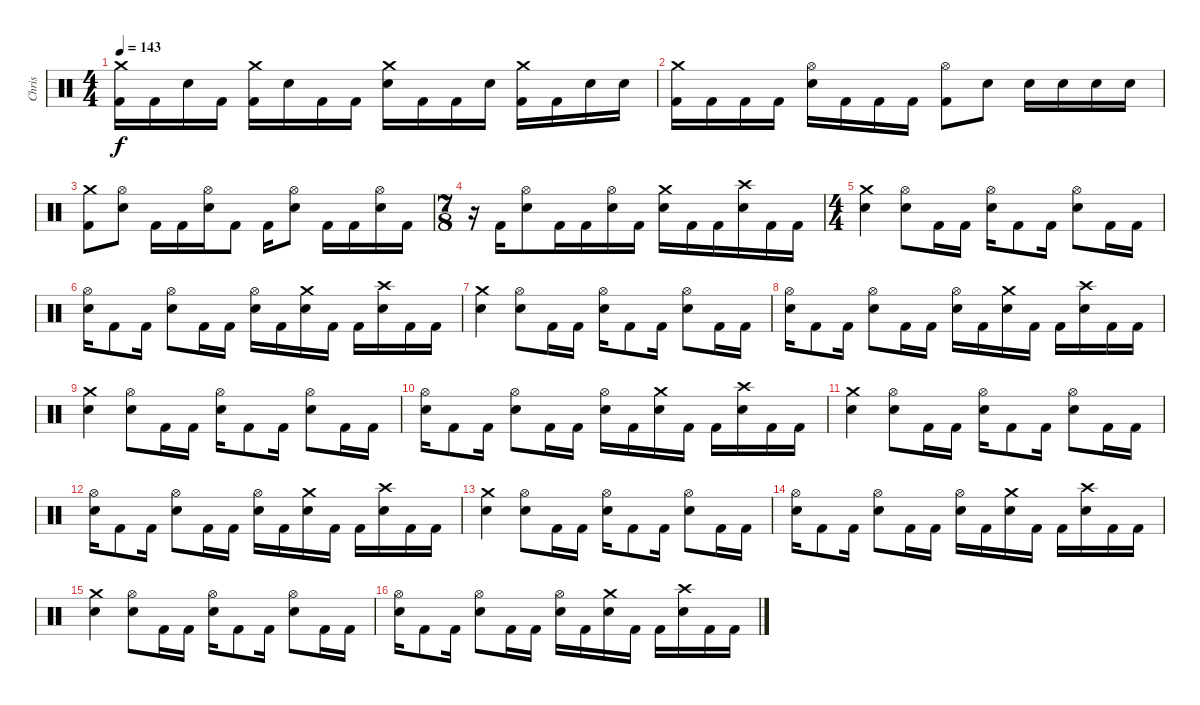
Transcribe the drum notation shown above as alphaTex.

\track ("Chris" "Chris") {instrument percussion}
\staff {score}
\articulation defaults
\ts (4 4)
\tempo 143
\clef neutral
\ks c
("Crash medium (hit)" "Kick (hit) 2").16{dy f} "Kick (hit) 2".16 "Electric Snare (hit)".16 "Kick (hit) 2".16 ("Crash medium (hit)" "Kick (hit) 2").16 "Electric Snare (hit)".16 "Kick (hit) 2".16 "Kick (hit) 2".16 ("Crash medium (hit)" "Electric Snare (hit)").16 "Kick (hit) 2".16 "Kick (hit) 2".16 "Electric Snare (hit)".16 ("Crash medium (hit)" "Kick (hit) 2").16 "Kick (hit) 2".16 "Electric Snare (hit)".16 "Electric Snare (hit)".16 |
("Crash medium (hit)" "Kick (hit) 2").16 "Kick (hit) 2".16 "Kick (hit) 2".16 "Kick (hit) 2".16 ("Hi-Hat (open)" "Electric Snare (hit)").16 "Kick (hit) 2".16 "Kick (hit) 2".16 "Kick (hit) 2".16 ("Hi-Hat (open)" "Kick (hit) 2").8 "Electric Snare (hit)".8 "Electric Snare (hit)".16 "Electric Snare (hit)".16 "Electric Snare (hit)".16 "Electric Snare (hit)".16 |
("Crash medium (hit)" "Kick (hit) 2").8 ("Hi-Hat (open)" "Electric Snare (hit)").8 "Kick (hit) 2".16 "Kick (hit) 2".16 ("Hi-Hat (open)" "Electric Snare (hit)").16 "Kick (hit) 2".8 "Kick (hit) 2".16 ("Hi-Hat (open)" "Electric Snare (hit)").8 "Kick (hit) 2".16 "Kick (hit) 2".16 ("Hi-Hat (open)" "Electric Snare (hit)").16 "Kick (hit) 2".16 |
\ts (7 8)
r.16 "Kick (hit) 2".16 ("Hi-Hat (open)" "Electric Snare (hit)").8 "Kick (hit) 2".16 "Kick (hit) 2".16 ("Hi-Hat (open)" "Electric Snare (hit)").16 "Kick (hit) 2".16 ("Crash medium (hit)" "Electric Snare (hit)").16 "Kick (hit) 2".16 "Kick (hit) 2".16 ("Crash high (hit)" "Electric Snare (hit)").16 "Kick (hit) 2".16 "Kick (hit) 2".16 |
\ts (4 4)
("Crash medium (hit)" "Electric Snare (hit)").4 ("Hi-Hat (open)" "Electric Snare (hit)").8 "Kick (hit) 2".16 "Kick (hit) 2".16 ("Hi-Hat (open)" "Electric Snare (hit)").16 "Kick (hit) 2".8 "Kick (hit) 2".16 ("Hi-Hat (open)" "Electric Snare (hit)").8 "Kick (hit) 2".16 "Kick (hit) 2".16 |
("Hi-Hat (open)" "Electric Snare (hit)").16 "Kick (hit) 2".8 "Kick (hit) 2".16 ("Hi-Hat (open)" "Electric Snare (hit)").8 "Kick (hit) 2".16 "Kick (hit) 2".16 ("Hi-Hat (open)" "Electric Snare (hit)").16 "Kick (hit) 2".16 ("Crash medium (hit)" "Electric Snare (hit)").16 "Kick (hit) 2".16 "Kick (hit) 2".16 ("Crash high (hit)" "Electric Snare (hit)").16 "Kick (hit) 2".16 "Kick (hit) 2".16 |
("Crash medium (hit)" "Electric Snare (hit)").4 ("Hi-Hat (open)" "Electric Snare (hit)").8 "Kick (hit) 2".16 "Kick (hit) 2".16 ("Hi-Hat (open)" "Electric Snare (hit)").16 "Kick (hit) 2".8 "Kick (hit) 2".16 ("Hi-Hat (open)" "Electric Snare (hit)").8 "Kick (hit) 2".16 "Kick (hit) 2".16 |
("Hi-Hat (open)" "Electric Snare (hit)").16 "Kick (hit) 2".8 "Kick (hit) 2".16 ("Hi-Hat (open)" "Electric Snare (hit)").8 "Kick (hit) 2".16 "Kick (hit) 2".16 ("Hi-Hat (open)" "Electric Snare (hit)").16 "Kick (hit) 2".16 ("Crash medium (hit)" "Electric Snare (hit)").16 "Kick (hit) 2".16 "Kick (hit) 2".16 ("Crash high (hit)" "Electric Snare (hit)").16 "Kick (hit) 2".16 "Kick (hit) 2".16 |
("Crash medium (hit)" "Electric Snare (hit)").4 ("Hi-Hat (open)" "Electric Snare (hit)").8 "Kick (hit) 2".16 "Kick (hit) 2".16 ("Hi-Hat (open)" "Electric Snare (hit)").16 "Kick (hit) 2".8 "Kick (hit) 2".16 ("Hi-Hat (open)" "Electric Snare (hit)").8 "Kick (hit) 2".16 "Kick (hit) 2".16 |
("Hi-Hat (open)" "Electric Snare (hit)").16 "Kick (hit) 2".8 "Kick (hit) 2".16 ("Hi-Hat (open)" "Electric Snare (hit)").8 "Kick (hit) 2".16 "Kick (hit) 2".16 ("Hi-Hat (open)" "Electric Snare (hit)").16 "Kick (hit) 2".16 ("Crash medium (hit)" "Electric Snare (hit)").16 "Kick (hit) 2".16 "Kick (hit) 2".16 ("Crash high (hit)" "Electric Snare (hit)").16 "Kick (hit) 2".16 "Kick (hit) 2".16 |
("Crash medium (hit)" "Electric Snare (hit)").4 ("Hi-Hat (open)" "Electric Snare (hit)").8 "Kick (hit) 2".16 "Kick (hit) 2".16 ("Hi-Hat (open)" "Electric Snare (hit)").16 "Kick (hit) 2".8 "Kick (hit) 2".16 ("Hi-Hat (open)" "Electric Snare (hit)").8 "Kick (hit) 2".16 "Kick (hit) 2".16 |
("Hi-Hat (open)" "Electric Snare (hit)").16 "Kick (hit) 2".8 "Kick (hit) 2".16 ("Hi-Hat (open)" "Electric Snare (hit)").8 "Kick (hit) 2".16 "Kick (hit) 2".16 ("Hi-Hat (open)" "Electric Snare (hit)").16 "Kick (hit) 2".16 ("Crash medium (hit)" "Electric Snare (hit)").16 "Kick (hit) 2".16 "Kick (hit) 2".16 ("Crash high (hit)" "Electric Snare (hit)").16 "Kick (hit) 2".16 "Kick (hit) 2".16 |
("Crash medium (hit)" "Electric Snare (hit)").4 ("Hi-Hat (open)" "Electric Snare (hit)").8 "Kick (hit) 2".16 "Kick (hit) 2".16 ("Hi-Hat (open)" "Electric Snare (hit)").16 "Kick (hit) 2".8 "Kick (hit) 2".16 ("Hi-Hat (open)" "Electric Snare (hit)").8 "Kick (hit) 2".16 "Kick (hit) 2".16 |
("Hi-Hat (open)" "Electric Snare (hit)").16 "Kick (hit) 2".8 "Kick (hit) 2".16 ("Hi-Hat (open)" "Electric Snare (hit)").8 "Kick (hit) 2".16 "Kick (hit) 2".16 ("Hi-Hat (open)" "Electric Snare (hit)").16 "Kick (hit) 2".16 ("Crash medium (hit)" "Electric Snare (hit)").16 "Kick (hit) 2".16 "Kick (hit) 2".16 ("Crash high (hit)" "Electric Snare (hit)").16 "Kick (hit) 2".16 "Kick (hit) 2".16 |
("Crash medium (hit)" "Electric Snare (hit)").4 ("Hi-Hat (open)" "Electric Snare (hit)").8 "Kick (hit) 2".16 "Kick (hit) 2".16 ("Hi-Hat (open)" "Electric Snare (hit)").16 "Kick (hit) 2".8 "Kick (hit) 2".16 ("Hi-Hat (open)" "Electric Snare (hit)").8 "Kick (hit) 2".16 "Kick (hit) 2".16 |
("Hi-Hat (open)" "Electric Snare (hit)").16 "Kick (hit) 2".8 "Kick (hit) 2".16 ("Hi-Hat (open)" "Electric Snare (hit)").8 "Kick (hit) 2".16 "Kick (hit) 2".16 ("Hi-Hat (open)" "Electric Snare (hit)").16 "Kick (hit) 2".16 ("Crash medium (hit)" "Electric Snare (hit)").16 "Kick (hit) 2".16 "Kick (hit) 2".16 ("Crash high (hit)" "Electric Snare (hit)").16 "Kick (hit) 2".16 "Kick (hit) 2".16
